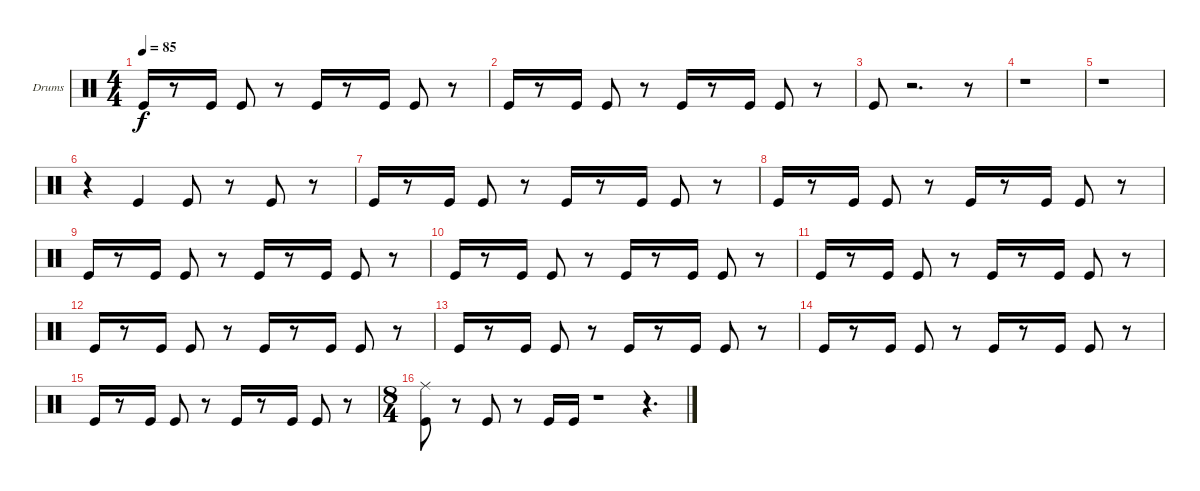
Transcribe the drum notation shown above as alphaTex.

\bracketExtendMode groupsimilarinstruments
\firstSystemTrackNameOrientation horizontal
\otherSystemsTrackNameOrientation horizontal
\track ("Drumkit" "Drums") {instrument percussion}
\staff {score}
\articulation defaults
\ts (4 4)
\tempo 85
\clef neutral
\ks c "Kick (hit)".16{dy f}
r.8 "Kick (hit)".16 "Kick (hit)".8 r.8 "Kick (hit)".16 r.8 "Kick (hit)".16 "Kick (hit)".8 r.8 |
"Kick (hit)".16 r.8 "Kick (hit)".16 "Kick (hit)".8 r.8 "Kick (hit)".16 r.8 "Kick (hit)".16 "Kick (hit)".8 r.8 |
"Kick (hit)".8 r.2{d} r.8 |
r.1 |
r.1 |
r.4 "Kick (hit)".4 "Kick (hit)".8 r.8 "Kick (hit)".8 r.8 |
"Kick (hit)".16 r.8 "Kick (hit)".16 "Kick (hit)".8 r.8 "Kick (hit)".16 r.8 "Kick (hit)".16 "Kick (hit)".8 r.8 |
"Kick (hit)".16 r.8 "Kick (hit)".16 "Kick (hit)".8 r.8 "Kick (hit)".16 r.8 "Kick (hit)".16 "Kick (hit)".8 r.8 |
"Kick (hit)".16 r.8 "Kick (hit)".16 "Kick (hit)".8 r.8 "Kick (hit)".16 r.8 "Kick (hit)".16 "Kick (hit)".8 r.8 |
"Kick (hit)".16 r.8 "Kick (hit)".16 "Kick (hit)".8 r.8 "Kick (hit)".16 r.8 "Kick (hit)".16 "Kick (hit)".8 r.8 |
"Kick (hit)".16 r.8 "Kick (hit)".16 "Kick (hit)".8 r.8 "Kick (hit)".16 r.8 "Kick (hit)".16 "Kick (hit)".8 r.8 |
"Kick (hit)".16 r.8 "Kick (hit)".16 "Kick (hit)".8 r.8 "Kick (hit)".16 r.8 "Kick (hit)".16 "Kick (hit)".8 r.8 |
"Kick (hit)".16 r.8 "Kick (hit)".16 "Kick (hit)".8 r.8 "Kick (hit)".16 r.8 "Kick (hit)".16 "Kick (hit)".8 r.8 |
"Kick (hit)".16 r.8 "Kick (hit)".16 "Kick (hit)".8 r.8 "Kick (hit)".16 r.8 "Kick (hit)".16 "Kick (hit)".8 r.8 |
"Kick (hit)".16 r.8 "Kick (hit)".16 "Kick (hit)".8 r.8 "Kick (hit)".16 r.8 "Kick (hit)".16 "Kick (hit)".8 r.8 |
\ts (8 4)
("Kick (hit)" "Ride (middle)").8 r.8 "Kick (hit)".8 r.8 "Kick (hit)".16 "Kick (hit)".16 r.1 r.4{d}
